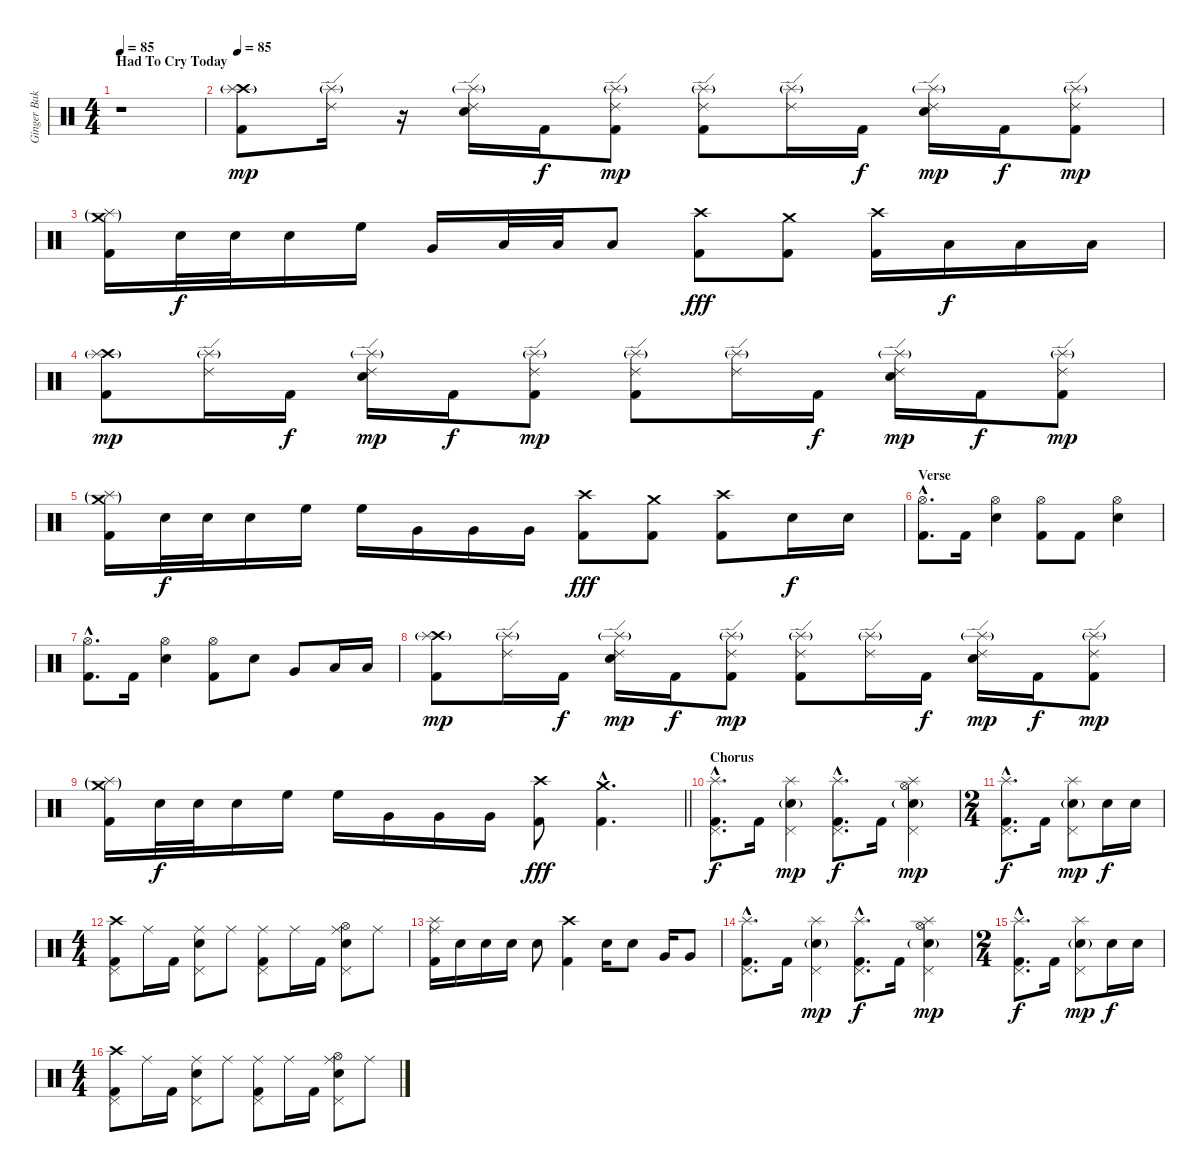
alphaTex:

\track ("Ginger Baker (Drums)" "Ginger Bak") {instrument percussion}
\staff {score}
\articulation defaults
\ts (4 4)
\section ("" "Had To Cry Today")
\tempo 85
\clef neutral
\ks c
r.1{dy mp} |
\tempo 85
("Crash high (hit)" "Splash (hit)"{g} "Kick (hit) 2").8 ("Ride (edge) 2" "Splash (hit)"{g}).16 r.16 ("Ride (edge) 2" "Splash (hit)"{g} "Snare (hit) 2").16 "Kick (hit) 2".16{dy f} ("Ride (edge) 2" "Splash (hit)"{g} "Kick (hit) 2").8{dy mp} ("Ride (edge) 2" "Splash (hit)"{g} "Kick (hit) 2").8 ("Ride (edge) 2" "Splash (hit)"{g}).16 "Kick (hit) 2".16{dy f} ("Ride (edge) 2" "Splash (hit)"{g} "Snare (hit) 2").16{dy mp} "Kick (hit) 2".16{dy f} ("Ride (edge) 2" "Splash (hit)"{g} "Kick (hit) 2").8{dy mp} |
("Crash medium (hit)"{g} "Splash (hit)"{g} "Kick (hit) 2").16 "Snare (hit) 2".32{dy f} "Snare (hit) 2".32 "Snare (hit) 2".16 "High Floor Tom (hit)".16 "Very Low Tom (hit)".16 "Low Floor Tom (hit)".32 "Low Floor Tom (hit)".32 "Low Floor Tom (hit)".8 ("Crash high (hit)" "Kick (hit) 2").8{dy fff} ("Crash medium (hit)" "Kick (hit) 2").8 ("Crash high (hit)" "Kick (hit) 2").16 "Low Floor Tom (hit)".16{dy f} "Low Floor Tom (hit)".16 "Low Floor Tom (hit)".16 |
("Crash high (hit)" "Splash (hit)"{g} "Kick (hit) 2").8{dy mp} ("Ride (edge) 2" "Splash (hit)"{g}).16 "Kick (hit) 2".16{dy f} ("Ride (edge) 2" "Splash (hit)"{g} "Snare (hit) 2").16{dy mp} "Kick (hit) 2".16{dy f} ("Ride (edge) 2" "Splash (hit)"{g} "Kick (hit) 2").8{dy mp} ("Ride (edge) 2" "Splash (hit)"{g} "Kick (hit) 2").8 ("Ride (edge) 2" "Splash (hit)"{g}).16 "Kick (hit) 2".16{dy f} ("Ride (edge) 2" "Splash (hit)"{g} "Snare (hit) 2").16{dy mp} "Kick (hit) 2".16{dy f} ("Ride (edge) 2" "Splash (hit)"{g} "Kick (hit) 2").8{dy mp} |
("Crash medium (hit)"{g} "Splash (hit)"{g} "Kick (hit) 2").16 "Snare (hit) 2".32{dy f} "Snare (hit) 2".32 "Snare (hit) 2".16 "High Floor Tom (hit)".16 "High Floor Tom (hit)".16 "Very Low Tom (hit)".16 "Very Low Tom (hit)".16 "Very Low Tom (hit)".16 ("Crash high (hit)" "Kick (hit) 2").8{dy fff} ("Crash medium (hit)" "Kick (hit) 2").8 ("Crash high (hit)" "Kick (hit) 2").8 "Snare (hit) 2".16{dy f} "Snare (hit) 2".16 |
\section ("" "Verse")
("Hi-Hat (open)"{hac} "Kick (hit) 2"{hac}).8{d} "Kick (hit) 2".16 ("Hi-Hat (open)" "Snare (hit) 2").4 ("Hi-Hat (open)" "Kick (hit) 2").8 "Kick (hit) 2".8 ("Hi-Hat (open)" "Snare (hit) 2").4 |
("Hi-Hat (open)"{hac} "Kick (hit) 2"{hac}).8{d} "Kick (hit) 2".16 ("Hi-Hat (open)" "Snare (hit) 2").4 ("Hi-Hat (open)" "Kick (hit) 2").8 "Snare (hit) 2".8 "Very Low Tom (hit)".8 "Low Floor Tom (hit)".16 "Low Floor Tom (hit)".16 |
("Crash high (hit)" "Splash (hit)"{g} "Kick (hit) 2").8{dy mp} ("Ride (edge) 2" "Splash (hit)"{g}).16 "Kick (hit) 2".16{dy f} ("Ride (edge) 2" "Splash (hit)"{g} "Snare (hit) 2").16{dy mp} "Kick (hit) 2".16{dy f} ("Ride (edge) 2" "Splash (hit)"{g} "Kick (hit) 2").8{dy mp} ("Ride (edge) 2" "Splash (hit)"{g} "Kick (hit) 2").8 ("Ride (edge) 2" "Splash (hit)"{g}).16 "Kick (hit) 2".16{dy f} ("Ride (edge) 2" "Splash (hit)"{g} "Snare (hit) 2").16{dy mp} "Kick (hit) 2".16{dy f} ("Ride (edge) 2" "Splash (hit)"{g} "Kick (hit) 2").8{dy mp} |
\barLineRight lightlight
("Crash medium (hit)"{g} "Splash (hit)"{g} "Kick (hit) 2").16 "Snare (hit) 2".32{dy f} "Snare (hit) 2".32 "Snare (hit) 2".16 "High Floor Tom (hit)".16 "High Floor Tom (hit)".16 "Very Low Tom (hit)".16 "Very Low Tom (hit)".16 "Very Low Tom (hit)".16 ("Crash high (hit)" "Kick (hit) 2").8{dy fff} ("Crash medium (hit)"{hac} "Kick (hit) 2"{hac}).4{d} |
\section ("" "Chorus")
("Splash (hit)"{hac} "Pedal Hi-Hat (hit)"{hac} "Kick (hit) 2"{hac}).8{d dy f} "Kick (hit) 2".16 ("Splash (hit)" "Pedal Hi-Hat (hit)" "Snare (hit) 2"{g}).4{dy mp} ("Splash (hit)"{hac} "Pedal Hi-Hat (hit)"{hac} "Kick (hit) 2"{hac}).8{d dy f} "Kick (hit) 2".16 ("Splash (hit)" "Hi-Hat (open)" "Pedal Hi-Hat (hit)" "Snare (hit) 2"{g}).4{dy mp} |
\ts (2 4)
("Splash (hit)"{hac} "Pedal Hi-Hat (hit)"{hac} "Kick (hit) 2"{hac}).8{d dy f} "Kick (hit) 2".16 ("Splash (hit)" "Pedal Hi-Hat (hit)" "Snare (hit) 2"{g}).8{dy mp} "Snare (hit) 2".16{dy f} "Snare (hit) 2".16 |
\ts (4 4)
("Crash high (hit)" "Pedal Hi-Hat (hit)" "Kick (hit) 2").8 "Ride (middle)".16 "Kick (hit) 2".16 ("Ride (middle)" "Pedal Hi-Hat (hit)" "Snare (hit) 2").8 "Ride (middle)".8 ("Ride (middle)" "Pedal Hi-Hat (hit)" "Kick (hit) 2").8 "Ride (middle)".16 "Kick (hit) 2".16 ("Ride (middle)" "Hi-Hat (open)" "Pedal Hi-Hat (hit)" "Snare (hit) 2").8 "Ride (middle)".8 |
("Splash (hit)" "Ride (middle)" "Kick (hit) 2").16 "Snare (hit) 2".16 "Snare (hit) 2".16 "Snare (hit) 2".16 "Snare (hit) 2".8 ("Crash high (hit)" "Kick (hit) 2").4 "Snare (hit) 2".16 "Snare (hit) 2".8 "Very Low Tom (hit)".16 "Very Low Tom (hit)".8 |
("Splash (hit)"{hac} "Pedal Hi-Hat (hit)"{hac} "Kick (hit) 2"{hac}).8{d} "Kick (hit) 2".16 ("Splash (hit)" "Pedal Hi-Hat (hit)" "Snare (hit) 2"{g}).4{dy mp} ("Splash (hit)"{hac} "Pedal Hi-Hat (hit)"{hac} "Kick (hit) 2"{hac}).8{d dy f} "Kick (hit) 2".16 ("Splash (hit)" "Hi-Hat (open)" "Pedal Hi-Hat (hit)" "Snare (hit) 2"{g}).4{dy mp} |
\ts (2 4)
("Splash (hit)"{hac} "Pedal Hi-Hat (hit)"{hac} "Kick (hit) 2"{hac}).8{d dy f} "Kick (hit) 2".16 ("Splash (hit)" "Pedal Hi-Hat (hit)" "Snare (hit) 2"{g}).8{dy mp} "Snare (hit) 2".16{dy f} "Snare (hit) 2".16 |
\ts (4 4)
("Crash high (hit)" "Pedal Hi-Hat (hit)" "Kick (hit) 2").8 "Ride (middle)".16 "Kick (hit) 2".16 ("Ride (middle)" "Pedal Hi-Hat (hit)" "Snare (hit) 2").8 "Ride (middle)".8 ("Ride (middle)" "Pedal Hi-Hat (hit)" "Kick (hit) 2").8 "Ride (middle)".16 "Kick (hit) 2".16 ("Ride (middle)" "Hi-Hat (open)" "Pedal Hi-Hat (hit)" "Snare (hit) 2").8 "Ride (middle)".8
